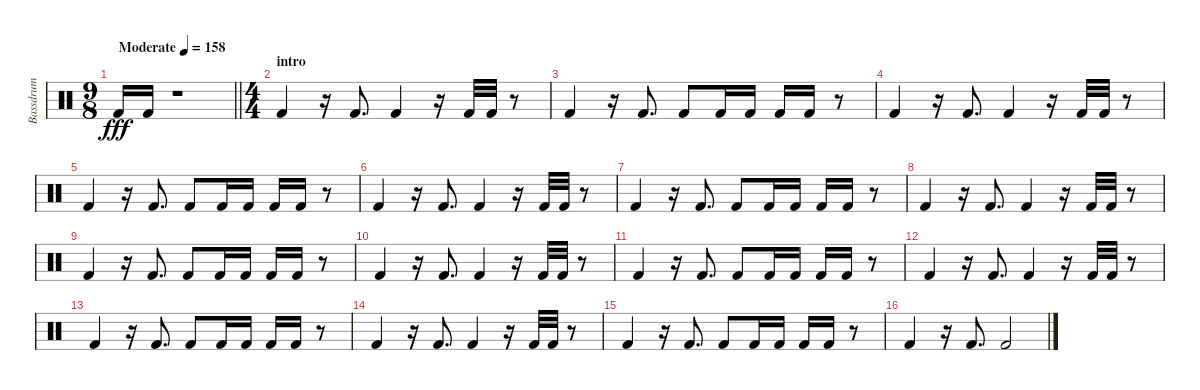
\track ("Bassdrum" "Bassdrum") {instrument percussion}
\staff {score}
\articulation defaults
\ts (9 8)
\tempo (158 "Moderate")
\clef neutral
\barLineRight lightlight
\ks c "Kick (hit) 2".16{dy fff volume 16} "Kick (hit) 2".16
r.1 |
\ts (4 4)
\section ("" "intro")
"Kick (hit) 2".4 r.16 "Kick (hit) 2".8{d} "Kick (hit) 2".4 r.16 "Kick (hit) 2".32 "Kick (hit) 2".32 r.8 |
"Kick (hit) 2".4 r.16 "Kick (hit) 2".8{d} "Kick (hit) 2".8 "Kick (hit) 2".16 "Kick (hit) 2".16 "Kick (hit) 2".16 "Kick (hit) 2".16 r.8 |
"Kick (hit) 2".4 r.16 "Kick (hit) 2".8{d} "Kick (hit) 2".4 r.16 "Kick (hit) 2".32 "Kick (hit) 2".32 r.8 |
"Kick (hit) 2".4 r.16 "Kick (hit) 2".8{d} "Kick (hit) 2".8 "Kick (hit) 2".16 "Kick (hit) 2".16 "Kick (hit) 2".16 "Kick (hit) 2".16 r.8 |
"Kick (hit) 2".4 r.16 "Kick (hit) 2".8{d} "Kick (hit) 2".4 r.16 "Kick (hit) 2".32 "Kick (hit) 2".32 r.8 |
"Kick (hit) 2".4 r.16 "Kick (hit) 2".8{d} "Kick (hit) 2".8 "Kick (hit) 2".16 "Kick (hit) 2".16 "Kick (hit) 2".16 "Kick (hit) 2".16 r.8 |
"Kick (hit) 2".4 r.16 "Kick (hit) 2".8{d} "Kick (hit) 2".4 r.16 "Kick (hit) 2".32 "Kick (hit) 2".32 r.8 |
"Kick (hit) 2".4 r.16 "Kick (hit) 2".8{d} "Kick (hit) 2".8 "Kick (hit) 2".16 "Kick (hit) 2".16 "Kick (hit) 2".16 "Kick (hit) 2".16 r.8 |
"Kick (hit) 2".4 r.16 "Kick (hit) 2".8{d} "Kick (hit) 2".4 r.16 "Kick (hit) 2".32 "Kick (hit) 2".32 r.8 |
"Kick (hit) 2".4 r.16 "Kick (hit) 2".8{d} "Kick (hit) 2".8 "Kick (hit) 2".16 "Kick (hit) 2".16 "Kick (hit) 2".16 "Kick (hit) 2".16 r.8 |
"Kick (hit) 2".4 r.16 "Kick (hit) 2".8{d} "Kick (hit) 2".4 r.16 "Kick (hit) 2".32 "Kick (hit) 2".32 r.8 |
"Kick (hit) 2".4 r.16 "Kick (hit) 2".8{d} "Kick (hit) 2".8 "Kick (hit) 2".16 "Kick (hit) 2".16 "Kick (hit) 2".16 "Kick (hit) 2".16 r.8 |
"Kick (hit) 2".4 r.16 "Kick (hit) 2".8{d} "Kick (hit) 2".4 r.16 "Kick (hit) 2".32 "Kick (hit) 2".32 r.8 |
"Kick (hit) 2".4 r.16 "Kick (hit) 2".8{d} "Kick (hit) 2".8 "Kick (hit) 2".16 "Kick (hit) 2".16 "Kick (hit) 2".16 "Kick (hit) 2".16 r.8 |
"Kick (hit) 2".4 r.16 "Kick (hit) 2".8{d} "Kick (hit) 2".2
